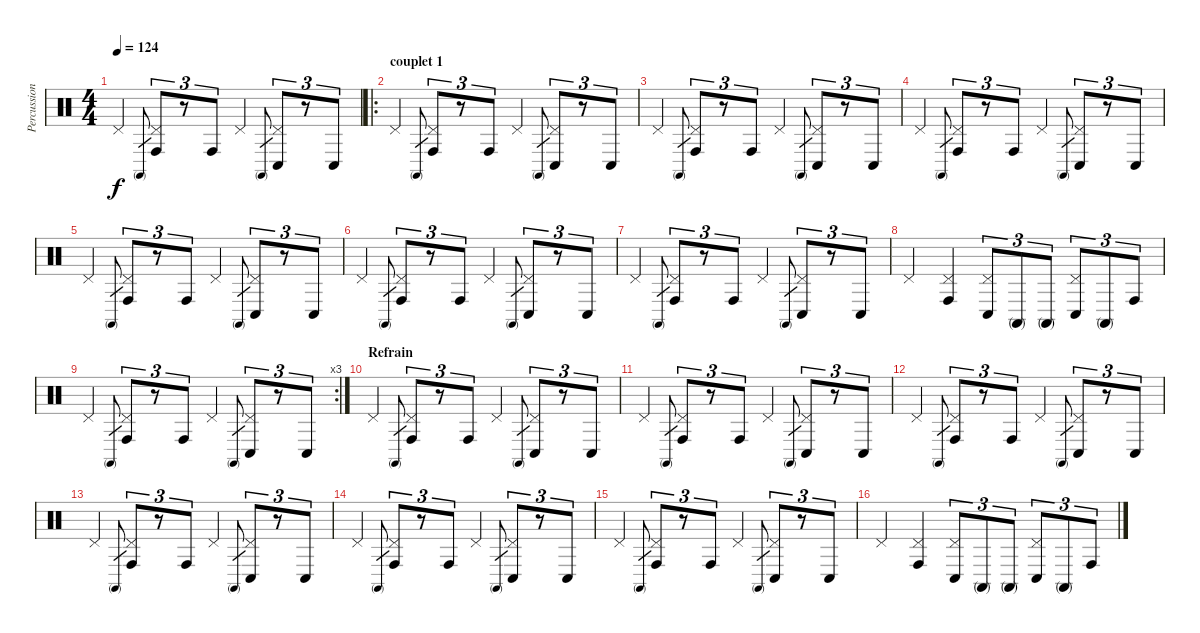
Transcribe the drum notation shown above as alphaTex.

\track ("Percussions" "Percussion") {instrument percussion}
\staff {score}
\articulation defaults
\ts (4 4)
\tempo 124
\clef neutral
\ks c "Pedal Hi-Hat (hit)".4{dy f} "Conga high (mute)".8{gr}
("Pedal Hi-Hat (hit)" "Conga high (hit)").8{tu (3 2)} r.8{tu (3 2)} "Conga high (hit)".8{tu (3 2)} "Pedal Hi-Hat (hit)".4 "Conga high (mute)".8{gr} ("Pedal Hi-Hat (hit)" "Conga low (hit)").8{tu (3 2)} r.8{tu (3 2)} "Conga low (hit)".8{tu (3 2)} |
\ro
\section ("" "couplet 1")
"Pedal Hi-Hat (hit)".4 "Conga high (mute)".8{gr} ("Pedal Hi-Hat (hit)" "Conga high (hit)").8{tu (3 2)} r.8{tu (3 2)} "Conga high (hit)".8{tu (3 2)} "Pedal Hi-Hat (hit)".4 "Conga high (mute)".8{gr} ("Pedal Hi-Hat (hit)" "Conga low (hit)").8{tu (3 2)} r.8{tu (3 2)} "Conga low (hit)".8{tu (3 2)} |
"Pedal Hi-Hat (hit)".4 "Conga high (mute)".8{gr} ("Pedal Hi-Hat (hit)" "Conga high (hit)").8{tu (3 2)} r.8{tu (3 2)} "Conga high (hit)".8{tu (3 2)} "Pedal Hi-Hat (hit)".4 "Conga high (mute)".8{gr} ("Pedal Hi-Hat (hit)" "Conga low (hit)").8{tu (3 2)} r.8{tu (3 2)} "Conga low (hit)".8{tu (3 2)} |
"Pedal Hi-Hat (hit)".4 "Conga high (mute)".8{gr} ("Pedal Hi-Hat (hit)" "Conga high (hit)").8{tu (3 2)} r.8{tu (3 2)} "Conga high (hit)".8{tu (3 2)} "Pedal Hi-Hat (hit)".4 "Conga high (mute)".8{gr} ("Pedal Hi-Hat (hit)" "Conga low (hit)").8{tu (3 2)} r.8{tu (3 2)} "Conga low (hit)".8{tu (3 2)} |
"Pedal Hi-Hat (hit)".4 "Conga high (mute)".8{gr} ("Pedal Hi-Hat (hit)" "Conga high (hit)").8{tu (3 2)} r.8{tu (3 2)} "Conga high (hit)".8{tu (3 2)} "Pedal Hi-Hat (hit)".4 "Conga high (mute)".8{gr} ("Pedal Hi-Hat (hit)" "Conga low (hit)").8{tu (3 2)} r.8{tu (3 2)} "Conga low (hit)".8{tu (3 2)} |
"Pedal Hi-Hat (hit)".4 "Conga high (mute)".8{gr} ("Pedal Hi-Hat (hit)" "Conga high (hit)").8{tu (3 2)} r.8{tu (3 2)} "Conga high (hit)".8{tu (3 2)} "Pedal Hi-Hat (hit)".4 "Conga high (mute)".8{gr} ("Pedal Hi-Hat (hit)" "Conga low (hit)").8{tu (3 2)} r.8{tu (3 2)} "Conga low (hit)".8{tu (3 2)} |
"Pedal Hi-Hat (hit)".4 "Conga high (mute)".8{gr} ("Pedal Hi-Hat (hit)" "Conga high (hit)").8{tu (3 2)} r.8{tu (3 2)} "Conga high (hit)".8{tu (3 2)} "Pedal Hi-Hat (hit)".4 "Conga high (mute)".8{gr} ("Pedal Hi-Hat (hit)" "Conga low (hit)").8{tu (3 2)} r.8{tu (3 2)} "Conga low (hit)".8{tu (3 2)} |
"Pedal Hi-Hat (hit)".4 ("Pedal Hi-Hat (hit)" "Conga high (hit)").4 ("Pedal Hi-Hat (hit)" "Conga low (hit)").8{tu (3 2)} "Conga high (mute)".8{tu (3 2)} "Conga high (mute)".8{tu (3 2)} ("Pedal Hi-Hat (hit)" "Conga low (hit)").8{tu (3 2)} "Conga high (mute)".8{tu (3 2)} "Conga high (hit)".8{tu (3 2)} |
\rc 3 "Pedal Hi-Hat (hit)".4 "Conga high (mute)".8{gr}
("Pedal Hi-Hat (hit)" "Conga high (hit)").8{tu (3 2)} r.8{tu (3 2)} "Conga high (hit)".8{tu (3 2)} "Pedal Hi-Hat (hit)".4 "Conga high (mute)".8{gr} ("Pedal Hi-Hat (hit)" "Conga low (hit)").8{tu (3 2)} r.8{tu (3 2)} "Conga low (hit)".8{tu (3 2)} |
\section ("" "Refrain")
"Pedal Hi-Hat (hit)".4 "Conga high (mute)".8{gr} ("Pedal Hi-Hat (hit)" "Conga high (hit)").8{tu (3 2)} r.8{tu (3 2)} "Conga high (hit)".8{tu (3 2)} "Pedal Hi-Hat (hit)".4 "Conga high (mute)".8{gr} ("Pedal Hi-Hat (hit)" "Conga low (hit)").8{tu (3 2)} r.8{tu (3 2)} "Conga low (hit)".8{tu (3 2)} |
"Pedal Hi-Hat (hit)".4 "Conga high (mute)".8{gr} ("Pedal Hi-Hat (hit)" "Conga high (hit)").8{tu (3 2)} r.8{tu (3 2)} "Conga high (hit)".8{tu (3 2)} "Pedal Hi-Hat (hit)".4 "Conga high (mute)".8{gr} ("Pedal Hi-Hat (hit)" "Conga low (hit)").8{tu (3 2)} r.8{tu (3 2)} "Conga low (hit)".8{tu (3 2)} |
"Pedal Hi-Hat (hit)".4 "Conga high (mute)".8{gr} ("Pedal Hi-Hat (hit)" "Conga high (hit)").8{tu (3 2)} r.8{tu (3 2)} "Conga high (hit)".8{tu (3 2)} "Pedal Hi-Hat (hit)".4 "Conga high (mute)".8{gr} ("Pedal Hi-Hat (hit)" "Conga low (hit)").8{tu (3 2)} r.8{tu (3 2)} "Conga low (hit)".8{tu (3 2)} |
"Pedal Hi-Hat (hit)".4 "Conga high (mute)".8{gr} ("Pedal Hi-Hat (hit)" "Conga high (hit)").8{tu (3 2)} r.8{tu (3 2)} "Conga high (hit)".8{tu (3 2)} "Pedal Hi-Hat (hit)".4 "Conga high (mute)".8{gr} ("Pedal Hi-Hat (hit)" "Conga low (hit)").8{tu (3 2)} r.8{tu (3 2)} "Conga low (hit)".8{tu (3 2)} |
"Pedal Hi-Hat (hit)".4 "Conga high (mute)".8{gr} ("Pedal Hi-Hat (hit)" "Conga high (hit)").8{tu (3 2)} r.8{tu (3 2)} "Conga high (hit)".8{tu (3 2)} "Pedal Hi-Hat (hit)".4 "Conga high (mute)".8{gr} ("Pedal Hi-Hat (hit)" "Conga low (hit)").8{tu (3 2)} r.8{tu (3 2)} "Conga low (hit)".8{tu (3 2)} |
"Pedal Hi-Hat (hit)".4 "Conga high (mute)".8{gr} ("Pedal Hi-Hat (hit)" "Conga high (hit)").8{tu (3 2)} r.8{tu (3 2)} "Conga high (hit)".8{tu (3 2)} "Pedal Hi-Hat (hit)".4 "Conga high (mute)".8{gr} ("Pedal Hi-Hat (hit)" "Conga low (hit)").8{tu (3 2)} r.8{tu (3 2)} "Conga low (hit)".8{tu (3 2)} |
"Pedal Hi-Hat (hit)".4 ("Pedal Hi-Hat (hit)" "Conga high (hit)").4 ("Pedal Hi-Hat (hit)" "Conga low (hit)").8{tu (3 2)} "Conga high (mute)".8{tu (3 2)} "Conga high (mute)".8{tu (3 2)} ("Pedal Hi-Hat (hit)" "Conga low (hit)").8{tu (3 2)} "Conga high (mute)".8{tu (3 2)} "Conga high (hit)".8{tu (3 2)}
